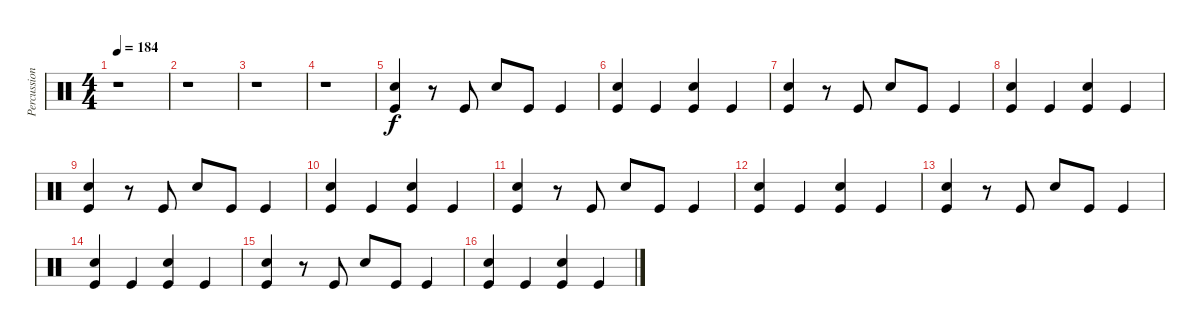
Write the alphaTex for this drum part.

\track ("Percussion" "Percussion") {instrument percussion}
\staff {score}
\articulation defaults
\ts (4 4)
\tempo 184
\clef neutral
\ks c
r.1{dy f} |
r.1 |
r.1 |
r.1 |
("Kick (hit)" "Snare (hit) 2").4 r.8 "Kick (hit)".8 "Snare (hit) 2".8 "Kick (hit)".8 "Kick (hit)".4 |
("Kick (hit)" "Snare (hit) 2").4 "Kick (hit)".4 ("Kick (hit)" "Snare (hit) 2").4 "Kick (hit)".4 |
("Kick (hit)" "Snare (hit) 2").4 r.8 "Kick (hit)".8 "Snare (hit) 2".8 "Kick (hit)".8 "Kick (hit)".4 |
("Kick (hit)" "Snare (hit) 2").4 "Kick (hit)".4 ("Kick (hit)" "Snare (hit) 2").4 "Kick (hit)".4 |
("Kick (hit)" "Snare (hit) 2").4 r.8 "Kick (hit)".8 "Snare (hit) 2".8 "Kick (hit)".8 "Kick (hit)".4 |
("Kick (hit)" "Snare (hit) 2").4 "Kick (hit)".4 ("Kick (hit)" "Snare (hit) 2").4 "Kick (hit)".4 |
("Kick (hit)" "Snare (hit) 2").4 r.8 "Kick (hit)".8 "Snare (hit) 2".8 "Kick (hit)".8 "Kick (hit)".4 |
("Kick (hit)" "Snare (hit) 2").4 "Kick (hit)".4 ("Kick (hit)" "Snare (hit) 2").4 "Kick (hit)".4 |
("Kick (hit)" "Snare (hit) 2").4 r.8 "Kick (hit)".8 "Snare (hit) 2".8 "Kick (hit)".8 "Kick (hit)".4 |
("Kick (hit)" "Snare (hit) 2").4 "Kick (hit)".4 ("Kick (hit)" "Snare (hit) 2").4 "Kick (hit)".4 |
("Kick (hit)" "Snare (hit) 2").4 r.8 "Kick (hit)".8 "Snare (hit) 2".8 "Kick (hit)".8 "Kick (hit)".4 |
("Kick (hit)" "Snare (hit) 2").4 "Kick (hit)".4 ("Kick (hit)" "Snare (hit) 2").4 "Kick (hit)".4
